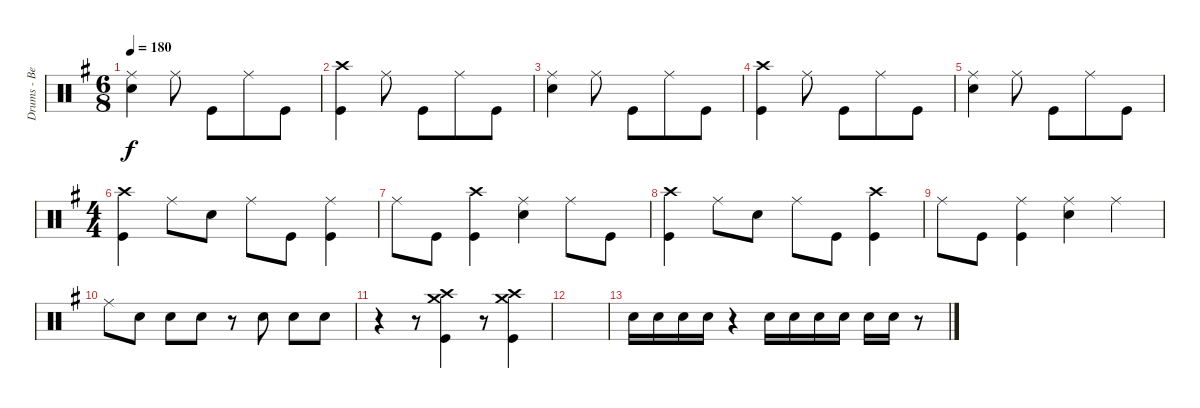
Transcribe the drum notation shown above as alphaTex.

\track ("Drums - Ben Johnston" "Drums - Be") {instrument percussion}
\staff {score}
\articulation defaults
\ts (6 8)
\tempo 180
\clef neutral
\ks eminor
("Ride (middle)" "Snare (hit) 2").4{dy f} "Ride (middle)".8 "Kick (hit)".8 "Ride (middle)".8 "Kick (hit)".8 |
("Crash high (hit)" "Kick (hit)").4 "Ride (middle)".8 "Kick (hit)".8 "Ride (middle)".8 "Kick (hit)".8 |
("Ride (middle)" "Snare (hit) 2").4 "Ride (middle)".8 "Kick (hit)".8 "Ride (middle)".8 "Kick (hit)".8 |
("Crash high (hit)" "Kick (hit)").4 "Ride (middle)".8 "Kick (hit)".8 "Ride (middle)".8 "Kick (hit)".8 |
("Ride (middle)" "Snare (hit) 2").4 "Ride (middle)".8 "Kick (hit)".8 "Ride (middle)".8 "Kick (hit)".8 |
\ts (4 4)
("Crash high (hit)" "Kick (hit)").4 "Ride (middle)".8 "Snare (hit) 2".8 "Ride (middle)".8 "Kick (hit)".8 ("Ride (middle)" "Kick (hit)").4 |
"Ride (middle)".8 "Kick (hit)".8 ("Crash high (hit)" "Kick (hit)").4 ("Ride (middle)" "Snare (hit) 2").4 "Ride (middle)".8 "Kick (hit)".8 |
("Crash high (hit)" "Kick (hit)").4 "Ride (middle)".8 "Snare (hit) 2".8 "Ride (middle)".8 "Kick (hit)".8 ("Crash high (hit)" "Kick (hit)").4 |
"Ride (middle)".8 "Kick (hit)".8 ("Ride (middle)" "Kick (hit)").4 ("Ride (middle)" "Snare (hit) 2").4 "Ride (middle)".4 |
"Ride (middle)".8 "Snare (hit) 2".8 "Snare (hit) 2".8 "Snare (hit) 2".8 r.8 "Snare (hit) 2".8 "Snare (hit) 2".8 "Snare (hit) 2".8 |
r.4 r.8 ("Crash high (hit)" "Crash medium (hit)" "Kick (hit)").4 r.8 ("Crash high (hit)" "Crash medium (hit)" "Kick (hit)").4 |
|
"Snare (hit) 2".16 "Snare (hit) 2".16 "Snare (hit) 2".16 "Snare (hit) 2".16 r.4 "Snare (hit) 2".16 "Snare (hit) 2".16 "Snare (hit) 2".16 "Snare (hit) 2".16 "Snare (hit) 2".16 "Snare (hit) 2".16 r.8
